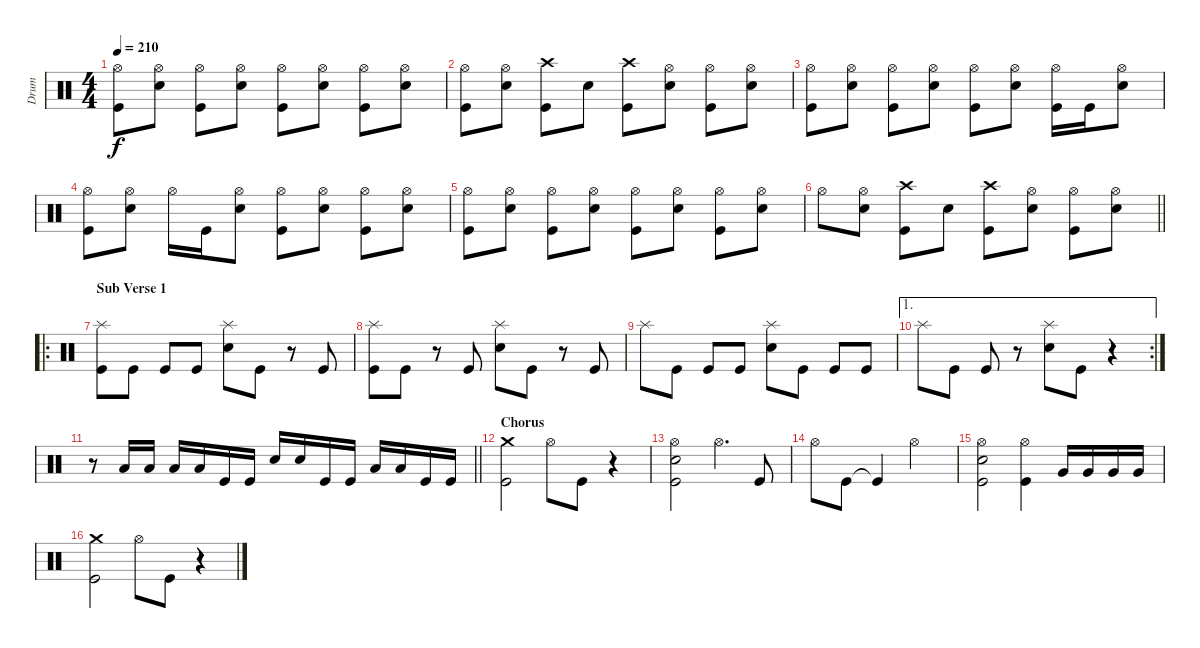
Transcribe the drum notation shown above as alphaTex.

\track ("Drum" "Drum") {instrument percussion}
\staff {score}
\articulation defaults
\ts (4 4)
\tempo 210
\clef neutral
\ks c
("Hi-Hat (open)" "Kick (hit)").8{dy f} ("Hi-Hat (open)" "Snare (hit) 2").8 ("Hi-Hat (open)" "Kick (hit)").8 ("Hi-Hat (open)" "Snare (hit) 2").8 ("Hi-Hat (open)" "Kick (hit)").8 ("Hi-Hat (open)" "Snare (hit) 2").8 ("Hi-Hat (open)" "Kick (hit)").8 ("Hi-Hat (open)" "Snare (hit) 2").8 |
("Hi-Hat (open)" "Kick (hit)").8 ("Hi-Hat (open)" "Snare (hit) 2").8 ("Crash high (hit)" "Kick (hit)").8 "Snare (hit) 2".8 ("Crash high (hit)" "Kick (hit)").8 ("Hi-Hat (open)" "Snare (hit) 2").8 ("Hi-Hat (open)" "Kick (hit)").8 ("Hi-Hat (open)" "Snare (hit) 2").8 |
("Hi-Hat (open)" "Kick (hit)").8 ("Hi-Hat (open)" "Snare (hit) 2").8 ("Hi-Hat (open)" "Kick (hit)").8 ("Hi-Hat (open)" "Snare (hit) 2").8 ("Hi-Hat (open)" "Kick (hit)").8 ("Hi-Hat (open)" "Snare (hit) 2").8 ("Hi-Hat (open)" "Kick (hit)").16 "Kick (hit)".16 ("Hi-Hat (open)" "Snare (hit) 2").8 |
("Hi-Hat (open)" "Kick (hit)").8 ("Hi-Hat (open)" "Snare (hit) 2").8 "Hi-Hat (open)".16 "Kick (hit)".16 ("Hi-Hat (open)" "Snare (hit) 2").8 ("Hi-Hat (open)" "Kick (hit)").8 ("Hi-Hat (open)" "Snare (hit) 2").8 ("Hi-Hat (open)" "Kick (hit)").8 ("Hi-Hat (open)" "Snare (hit) 2").8 |
("Hi-Hat (open)" "Kick (hit)").8 ("Hi-Hat (open)" "Snare (hit) 2").8 ("Hi-Hat (open)" "Kick (hit)").8 ("Hi-Hat (open)" "Snare (hit) 2").8 ("Hi-Hat (open)" "Kick (hit)").8 ("Hi-Hat (open)" "Snare (hit) 2").8 ("Hi-Hat (open)" "Kick (hit)").8 ("Hi-Hat (open)" "Snare (hit) 2").8 |
\barLineRight lightlight "Hi-Hat (open)".8
("Hi-Hat (open)" "Snare (hit) 2").8 ("Crash high (hit)" "Kick (hit)").8 "Snare (hit) 2".8 ("Crash high (hit)" "Kick (hit)").8 ("Hi-Hat (open)" "Snare (hit) 2").8 ("Hi-Hat (open)" "Kick (hit)").8 ("Hi-Hat (open)" "Snare (hit) 2").8 |
\ro
\section ("" "Sub Verse 1")
("Splash (hit)" "Kick (hit)").8 "Kick (hit)".8 "Kick (hit)".8 "Kick (hit)".8 ("Splash (hit)" "Snare (hit) 2").8 "Kick (hit)".8 r.8 "Kick (hit)".8 |
("Splash (hit)" "Kick (hit)").8 "Kick (hit)".8 r.8 "Kick (hit)".8 ("Splash (hit)" "Snare (hit) 2").8 "Kick (hit)".8 r.8 "Kick (hit)".8 |
"Splash (hit)".8 "Kick (hit)".8 "Kick (hit)".8 "Kick (hit)".8 ("Splash (hit)" "Snare (hit) 2").8 "Kick (hit)".8 "Kick (hit)".8 "Kick (hit)".8 |
\ae 1
\rc 2 "Splash (hit)".8 "Kick (hit)".8 "Kick (hit)".8
r.8 ("Splash (hit)" "Snare (hit) 2").8 "Kick (hit)".8 r.4 |
\barLineRight lightlight
r.8 "Low Tom (hit)".16 "Low Tom (hit)".16 "Low Tom (hit)".16 "Low Tom (hit)".16 "Kick (hit)".16 "Kick (hit)".16 "Snare (hit) 2".16 "Snare (hit) 2".16 "Kick (hit)".16 "Kick (hit)".16 "Low Tom (hit)".16 "Low Tom (hit)".16 "Kick (hit)".16 "Kick (hit)".16 |
\section ("" "Chorus")
("Crash medium (hit)" "Kick (hit)").2 "Hi-Hat (open)".8 "Kick (hit)".8 r.4 |
("Hi-Hat (open)" "Snare (hit) 2" "Kick (hit)").2 "Hi-Hat (open)".4{d} "Kick (hit)".8 |
"Hi-Hat (open)".8 "Kick (hit)".8 "Kick (hit)"{t}.4 "Hi-Hat (open)".2 |
("Hi-Hat (open)" "Snare (hit) 2" "Kick (hit)").2 ("Hi-Hat (open)" "Kick (hit)").4 "Very Low Tom (hit)".16 "Very Low Tom (hit)".16 "Very Low Tom (hit)".16 "Very Low Tom (hit)".16 |
("Crash medium (hit)" "Kick (hit)").2 "Hi-Hat (open)".8 "Kick (hit)".8 r.4
